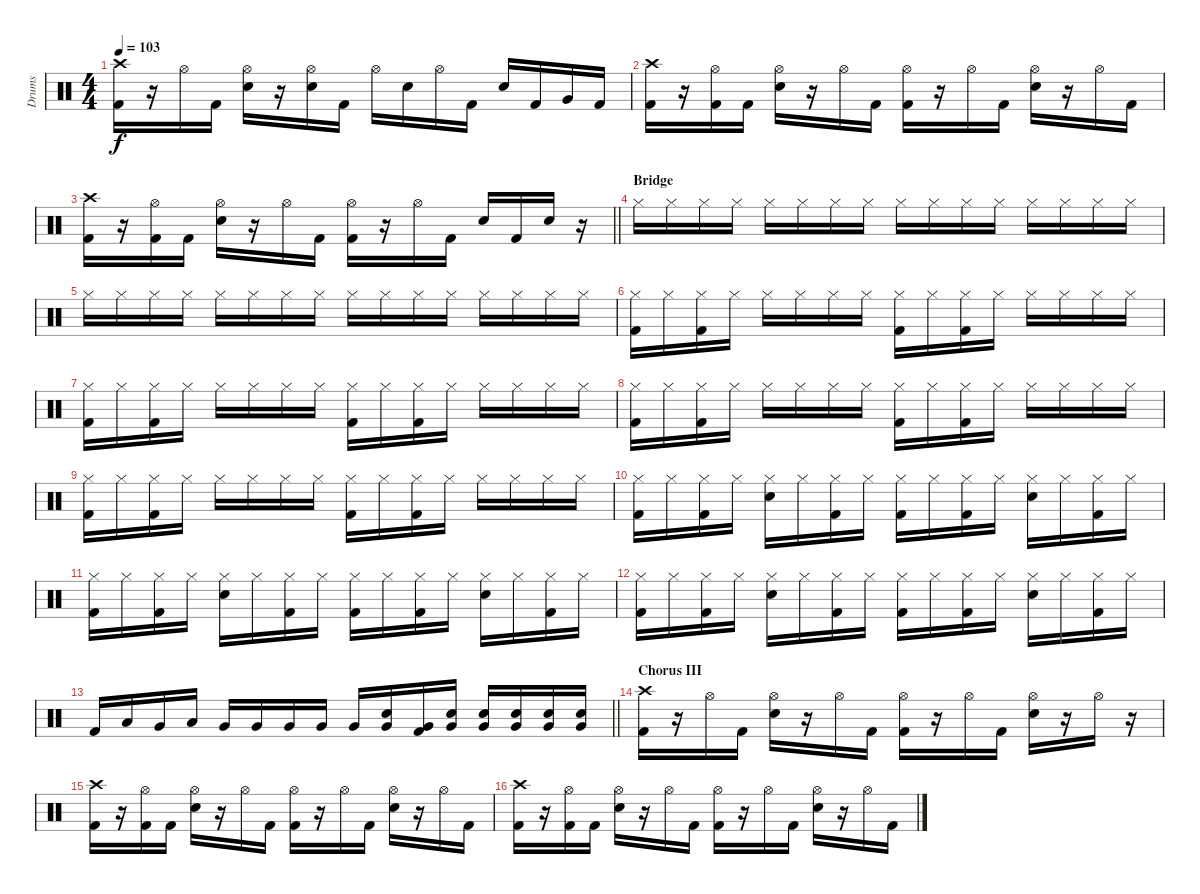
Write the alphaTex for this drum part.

\track ("Drums" "Drums") {instrument percussion}
\staff {score}
\articulation defaults
\ts (4 4)
\tempo 103
\clef neutral
\ks c
("Crash high (hit)" "Kick (hit) 2").16{dy f} r.16 "Hi-Hat (open)".16 "Kick (hit) 2".16 ("Hi-Hat (open)" "Electric Snare (hit)").16 r.16 ("Hi-Hat (open)" "Electric Snare (hit)").16 "Kick (hit) 2".16 "Hi-Hat (open)".16 "Electric Snare (hit)".16 "Hi-Hat (open)".16 "Kick (hit) 2".16 "Electric Snare (hit)".16 "Kick (hit) 2".16 "Very Low Tom (hit)".16 "Kick (hit) 2".16 |
("Crash high (hit)" "Kick (hit) 2").16 r.16 ("Hi-Hat (open)" "Kick (hit) 2").16 "Kick (hit) 2".16 ("Hi-Hat (open)" "Electric Snare (hit)").16 r.16 "Hi-Hat (open)".16 "Kick (hit) 2".16 ("Hi-Hat (open)" "Kick (hit) 2").16 r.16 "Hi-Hat (open)".16 "Kick (hit) 2".16 ("Hi-Hat (open)" "Electric Snare (hit)").16 r.16 "Hi-Hat (open)".16 "Kick (hit) 2".16 |
\barLineRight lightlight
("Crash high (hit)" "Kick (hit) 2").16 r.16 ("Hi-Hat (open)" "Kick (hit) 2").16 "Kick (hit) 2".16 ("Hi-Hat (open)" "Electric Snare (hit)").16 r.16 "Hi-Hat (open)".16 "Kick (hit) 2".16 ("Hi-Hat (open)" "Kick (hit) 2").16 r.16 "Hi-Hat (open)".16 "Kick (hit) 2".16 "Electric Snare (hit)".16 "Kick (hit) 2".16 "Electric Snare (hit)".16 r.16 |
\section ("" "Bridge")
"Hi-Hat (closed)".16 "Hi-Hat (closed)".16 "Hi-Hat (closed)".16 "Hi-Hat (closed)".16 "Hi-Hat (closed)".16 "Hi-Hat (closed)".16 "Hi-Hat (closed)".16 "Hi-Hat (closed)".16 "Hi-Hat (closed)".16 "Hi-Hat (closed)".16 "Hi-Hat (closed)".16 "Hi-Hat (closed)".16 "Hi-Hat (closed)".16 "Hi-Hat (closed)".16 "Hi-Hat (closed)".16 "Hi-Hat (closed)".16 |
"Hi-Hat (closed)".16 "Hi-Hat (closed)".16 "Hi-Hat (closed)".16 "Hi-Hat (closed)".16 "Hi-Hat (closed)".16 "Hi-Hat (closed)".16 "Hi-Hat (closed)".16 "Hi-Hat (closed)".16 "Hi-Hat (closed)".16 "Hi-Hat (closed)".16 "Hi-Hat (closed)".16 "Hi-Hat (closed)".16 "Hi-Hat (closed)".16 "Hi-Hat (closed)".16 "Hi-Hat (closed)".16 "Hi-Hat (closed)".16 |
("Hi-Hat (closed)" "Kick (hit) 2").16 "Hi-Hat (closed)".16 ("Hi-Hat (closed)" "Kick (hit) 2").16 "Hi-Hat (closed)".16 "Hi-Hat (closed)".16 "Hi-Hat (closed)".16 "Hi-Hat (closed)".16 "Hi-Hat (closed)".16 ("Hi-Hat (closed)" "Kick (hit) 2").16 "Hi-Hat (closed)".16 ("Hi-Hat (closed)" "Kick (hit) 2").16 "Hi-Hat (closed)".16 "Hi-Hat (closed)".16 "Hi-Hat (closed)".16 "Hi-Hat (closed)".16 "Hi-Hat (closed)".16 |
("Hi-Hat (closed)" "Kick (hit) 2").16 "Hi-Hat (closed)".16 ("Hi-Hat (closed)" "Kick (hit) 2").16 "Hi-Hat (closed)".16 "Hi-Hat (closed)".16 "Hi-Hat (closed)".16 "Hi-Hat (closed)".16 "Hi-Hat (closed)".16 ("Hi-Hat (closed)" "Kick (hit) 2").16 "Hi-Hat (closed)".16 ("Hi-Hat (closed)" "Kick (hit) 2").16 "Hi-Hat (closed)".16 "Hi-Hat (closed)".16 "Hi-Hat (closed)".16 "Hi-Hat (closed)".16 "Hi-Hat (closed)".16 |
("Hi-Hat (closed)" "Kick (hit) 2").16 "Hi-Hat (closed)".16 ("Hi-Hat (closed)" "Kick (hit) 2").16 "Hi-Hat (closed)".16 "Hi-Hat (closed)".16 "Hi-Hat (closed)".16 "Hi-Hat (closed)".16 "Hi-Hat (closed)".16 ("Hi-Hat (closed)" "Kick (hit) 2").16 "Hi-Hat (closed)".16 ("Hi-Hat (closed)" "Kick (hit) 2").16 "Hi-Hat (closed)".16 "Hi-Hat (closed)".16 "Hi-Hat (closed)".16 "Hi-Hat (closed)".16 "Hi-Hat (closed)".16 |
("Hi-Hat (closed)" "Kick (hit) 2").16 "Hi-Hat (closed)".16 ("Hi-Hat (closed)" "Kick (hit) 2").16 "Hi-Hat (closed)".16 "Hi-Hat (closed)".16 "Hi-Hat (closed)".16 "Hi-Hat (closed)".16 "Hi-Hat (closed)".16 ("Hi-Hat (closed)" "Kick (hit) 2").16 "Hi-Hat (closed)".16 ("Hi-Hat (closed)" "Kick (hit) 2").16 "Hi-Hat (closed)".16 "Hi-Hat (closed)".16 "Hi-Hat (closed)".16 "Hi-Hat (closed)".16 "Hi-Hat (closed)".16 |
("Hi-Hat (closed)" "Kick (hit) 2").16 "Hi-Hat (closed)".16 ("Hi-Hat (closed)" "Kick (hit) 2").16 "Hi-Hat (closed)".16 ("Hi-Hat (closed)" "Electric Snare (hit)").16 "Hi-Hat (closed)".16 ("Hi-Hat (closed)" "Kick (hit) 2").16 "Hi-Hat (closed)".16 ("Hi-Hat (closed)" "Kick (hit) 2").16 "Hi-Hat (closed)".16 ("Hi-Hat (closed)" "Kick (hit) 2").16 "Hi-Hat (closed)".16 ("Hi-Hat (closed)" "Electric Snare (hit)").16 "Hi-Hat (closed)".16 ("Hi-Hat (closed)" "Kick (hit) 2").16 "Hi-Hat (closed)".16 |
("Hi-Hat (closed)" "Kick (hit) 2").16 "Hi-Hat (closed)".16 ("Hi-Hat (closed)" "Kick (hit) 2").16 "Hi-Hat (closed)".16 ("Hi-Hat (closed)" "Electric Snare (hit)").16 "Hi-Hat (closed)".16 ("Hi-Hat (closed)" "Kick (hit) 2").16 "Hi-Hat (closed)".16 ("Hi-Hat (closed)" "Kick (hit) 2").16 "Hi-Hat (closed)".16 ("Hi-Hat (closed)" "Kick (hit) 2").16 "Hi-Hat (closed)".16 ("Hi-Hat (closed)" "Electric Snare (hit)").16 "Hi-Hat (closed)".16 ("Hi-Hat (closed)" "Kick (hit) 2").16 "Hi-Hat (closed)".16 |
("Hi-Hat (closed)" "Kick (hit) 2").16 "Hi-Hat (closed)".16 ("Hi-Hat (closed)" "Kick (hit) 2").16 "Hi-Hat (closed)".16 ("Hi-Hat (closed)" "Electric Snare (hit)").16 "Hi-Hat (closed)".16 ("Hi-Hat (closed)" "Kick (hit) 2").16 "Hi-Hat (closed)".16 ("Hi-Hat (closed)" "Kick (hit) 2").16 "Hi-Hat (closed)".16 ("Hi-Hat (closed)" "Kick (hit) 2").16 "Hi-Hat (closed)".16 ("Hi-Hat (closed)" "Electric Snare (hit)").16 "Hi-Hat (closed)".16 ("Hi-Hat (closed)" "Kick (hit) 2").16 "Hi-Hat (closed)".16 |
\barLineRight lightlight "Kick (hit) 2".16 "Low Tom (hit)".16 "Very Low Tom (hit)".16 "Low Floor Tom (hit)".16 "Very Low Tom (hit)".16 "Very Low Tom (hit)".16 "Very Low Tom (hit)".16 "Very Low Tom (hit)".16 "Very Low Tom (hit)".16
("Electric Snare (hit)" "Very Low Tom (hit)").16 ("Very Low Tom (hit)" "Kick (hit) 2").16 ("Electric Snare (hit)" "Very Low Tom (hit)").16 ("Electric Snare (hit)" "Very Low Tom (hit)").16 ("Electric Snare (hit)" "Very Low Tom (hit)").16 ("Electric Snare (hit)" "Very Low Tom (hit)").16 ("Electric Snare (hit)" "Very Low Tom (hit)").16 |
\section ("" "Chorus III")
("Crash high (hit)" "Kick (hit) 2").16 r.16 "Hi-Hat (open)".16 "Kick (hit) 2".16 ("Hi-Hat (open)" "Electric Snare (hit)").16 r.16 "Hi-Hat (open)".16 "Kick (hit) 2".16 ("Hi-Hat (open)" "Kick (hit) 2").16 r.16 "Hi-Hat (open)".16 "Kick (hit) 2".16 ("Hi-Hat (open)" "Electric Snare (hit)").16 r.16 "Hi-Hat (open)".16 r.16 |
("Crash high (hit)" "Kick (hit) 2").16 r.16 ("Hi-Hat (open)" "Kick (hit) 2").16 "Kick (hit) 2".16 ("Hi-Hat (open)" "Electric Snare (hit)").16 r.16 "Hi-Hat (open)".16 "Kick (hit) 2".16 ("Hi-Hat (open)" "Kick (hit) 2").16 r.16 "Hi-Hat (open)".16 "Kick (hit) 2".16 ("Hi-Hat (open)" "Electric Snare (hit)").16 r.16 "Hi-Hat (open)".16 "Kick (hit) 2".16 |
("Crash high (hit)" "Kick (hit) 2").16 r.16 ("Hi-Hat (open)" "Kick (hit) 2").16 "Kick (hit) 2".16 ("Hi-Hat (open)" "Electric Snare (hit)").16 r.16 "Hi-Hat (open)".16 "Kick (hit) 2".16 ("Hi-Hat (open)" "Kick (hit) 2").16 r.16 "Hi-Hat (open)".16 "Kick (hit) 2".16 ("Hi-Hat (open)" "Electric Snare (hit)").16 r.16 "Hi-Hat (open)".16 "Kick (hit) 2".16
